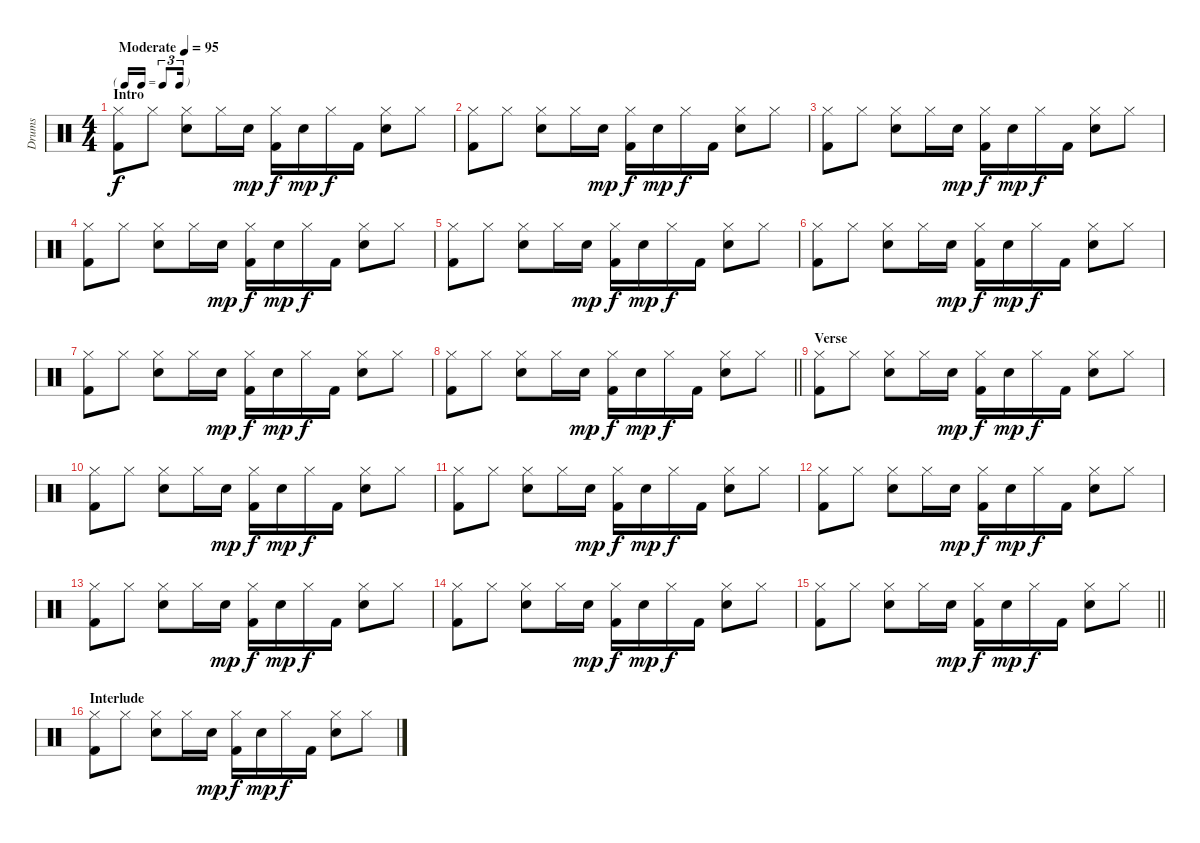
\track ("Drums" "Drums") {instrument percussion}
\staff {score}
\articulation defaults
\ts (4 4)
\tf triplet16th
\section ("" "Intro")
\tempo (95 "Moderate")
\clef neutral
\ks c
("Hi-Hat (closed)" "Kick (hit) 2").8{dy f} "Hi-Hat (closed)".8 ("Hi-Hat (closed)" "Snare (hit) 2").8 "Hi-Hat (closed)".16 "Snare (hit) 2".16{dy mp} ("Hi-Hat (closed)" "Kick (hit) 2").16{dy f} "Snare (hit) 2".16{dy mp} "Hi-Hat (closed)".16{dy f} "Kick (hit) 2".16 ("Hi-Hat (closed)" "Snare (hit) 2").8 "Hi-Hat (closed)".8 |
("Hi-Hat (closed)" "Kick (hit) 2").8 "Hi-Hat (closed)".8 ("Hi-Hat (closed)" "Snare (hit) 2").8 "Hi-Hat (closed)".16 "Snare (hit) 2".16{dy mp} ("Hi-Hat (closed)" "Kick (hit) 2").16{dy f} "Snare (hit) 2".16{dy mp} "Hi-Hat (closed)".16{dy f} "Kick (hit) 2".16 ("Hi-Hat (closed)" "Snare (hit) 2").8 "Hi-Hat (closed)".8 |
("Hi-Hat (closed)" "Kick (hit) 2").8 "Hi-Hat (closed)".8 ("Hi-Hat (closed)" "Snare (hit) 2").8 "Hi-Hat (closed)".16 "Snare (hit) 2".16{dy mp} ("Hi-Hat (closed)" "Kick (hit) 2").16{dy f} "Snare (hit) 2".16{dy mp} "Hi-Hat (closed)".16{dy f} "Kick (hit) 2".16 ("Hi-Hat (closed)" "Snare (hit) 2").8 "Hi-Hat (closed)".8 |
("Hi-Hat (closed)" "Kick (hit) 2").8 "Hi-Hat (closed)".8 ("Hi-Hat (closed)" "Snare (hit) 2").8 "Hi-Hat (closed)".16 "Snare (hit) 2".16{dy mp} ("Hi-Hat (closed)" "Kick (hit) 2").16{dy f} "Snare (hit) 2".16{dy mp} "Hi-Hat (closed)".16{dy f} "Kick (hit) 2".16 ("Hi-Hat (closed)" "Snare (hit) 2").8 "Hi-Hat (closed)".8 |
("Hi-Hat (closed)" "Kick (hit) 2").8 "Hi-Hat (closed)".8 ("Hi-Hat (closed)" "Snare (hit) 2").8 "Hi-Hat (closed)".16 "Snare (hit) 2".16{dy mp} ("Hi-Hat (closed)" "Kick (hit) 2").16{dy f} "Snare (hit) 2".16{dy mp} "Hi-Hat (closed)".16{dy f} "Kick (hit) 2".16 ("Hi-Hat (closed)" "Snare (hit) 2").8 "Hi-Hat (closed)".8 |
("Hi-Hat (closed)" "Kick (hit) 2").8 "Hi-Hat (closed)".8 ("Hi-Hat (closed)" "Snare (hit) 2").8 "Hi-Hat (closed)".16 "Snare (hit) 2".16{dy mp} ("Hi-Hat (closed)" "Kick (hit) 2").16{dy f} "Snare (hit) 2".16{dy mp} "Hi-Hat (closed)".16{dy f} "Kick (hit) 2".16 ("Hi-Hat (closed)" "Snare (hit) 2").8 "Hi-Hat (closed)".8 |
("Hi-Hat (closed)" "Kick (hit) 2").8 "Hi-Hat (closed)".8 ("Hi-Hat (closed)" "Snare (hit) 2").8 "Hi-Hat (closed)".16 "Snare (hit) 2".16{dy mp} ("Hi-Hat (closed)" "Kick (hit) 2").16{dy f} "Snare (hit) 2".16{dy mp} "Hi-Hat (closed)".16{dy f} "Kick (hit) 2".16 ("Hi-Hat (closed)" "Snare (hit) 2").8 "Hi-Hat (closed)".8 |
\barLineRight lightlight
("Hi-Hat (closed)" "Kick (hit) 2").8 "Hi-Hat (closed)".8 ("Hi-Hat (closed)" "Snare (hit) 2").8 "Hi-Hat (closed)".16 "Snare (hit) 2".16{dy mp} ("Hi-Hat (closed)" "Kick (hit) 2").16{dy f} "Snare (hit) 2".16{dy mp} "Hi-Hat (closed)".16{dy f} "Kick (hit) 2".16 ("Hi-Hat (closed)" "Snare (hit) 2").8 "Hi-Hat (closed)".8 |
\section ("" "Verse")
("Hi-Hat (closed)" "Kick (hit) 2").8 "Hi-Hat (closed)".8 ("Hi-Hat (closed)" "Snare (hit) 2").8 "Hi-Hat (closed)".16 "Snare (hit) 2".16{dy mp} ("Hi-Hat (closed)" "Kick (hit) 2").16{dy f} "Snare (hit) 2".16{dy mp} "Hi-Hat (closed)".16{dy f} "Kick (hit) 2".16 ("Hi-Hat (closed)" "Snare (hit) 2").8 "Hi-Hat (closed)".8 |
("Hi-Hat (closed)" "Kick (hit) 2").8 "Hi-Hat (closed)".8 ("Hi-Hat (closed)" "Snare (hit) 2").8 "Hi-Hat (closed)".16 "Snare (hit) 2".16{dy mp} ("Hi-Hat (closed)" "Kick (hit) 2").16{dy f} "Snare (hit) 2".16{dy mp} "Hi-Hat (closed)".16{dy f} "Kick (hit) 2".16 ("Hi-Hat (closed)" "Snare (hit) 2").8 "Hi-Hat (closed)".8 |
("Hi-Hat (closed)" "Kick (hit) 2").8 "Hi-Hat (closed)".8 ("Hi-Hat (closed)" "Snare (hit) 2").8 "Hi-Hat (closed)".16 "Snare (hit) 2".16{dy mp} ("Hi-Hat (closed)" "Kick (hit) 2").16{dy f} "Snare (hit) 2".16{dy mp} "Hi-Hat (closed)".16{dy f} "Kick (hit) 2".16 ("Hi-Hat (closed)" "Snare (hit) 2").8 "Hi-Hat (closed)".8 |
("Hi-Hat (closed)" "Kick (hit) 2").8 "Hi-Hat (closed)".8 ("Hi-Hat (closed)" "Snare (hit) 2").8 "Hi-Hat (closed)".16 "Snare (hit) 2".16{dy mp} ("Hi-Hat (closed)" "Kick (hit) 2").16{dy f} "Snare (hit) 2".16{dy mp} "Hi-Hat (closed)".16{dy f} "Kick (hit) 2".16 ("Hi-Hat (closed)" "Snare (hit) 2").8 "Hi-Hat (closed)".8 |
("Hi-Hat (closed)" "Kick (hit) 2").8 "Hi-Hat (closed)".8 ("Hi-Hat (closed)" "Snare (hit) 2").8 "Hi-Hat (closed)".16 "Snare (hit) 2".16{dy mp} ("Hi-Hat (closed)" "Kick (hit) 2").16{dy f} "Snare (hit) 2".16{dy mp} "Hi-Hat (closed)".16{dy f} "Kick (hit) 2".16 ("Hi-Hat (closed)" "Snare (hit) 2").8 "Hi-Hat (closed)".8 |
("Hi-Hat (closed)" "Kick (hit) 2").8 "Hi-Hat (closed)".8 ("Hi-Hat (closed)" "Snare (hit) 2").8 "Hi-Hat (closed)".16 "Snare (hit) 2".16{dy mp} ("Hi-Hat (closed)" "Kick (hit) 2").16{dy f} "Snare (hit) 2".16{dy mp} "Hi-Hat (closed)".16{dy f} "Kick (hit) 2".16 ("Hi-Hat (closed)" "Snare (hit) 2").8 "Hi-Hat (closed)".8 |
\barLineRight lightlight
("Hi-Hat (closed)" "Kick (hit) 2").8 "Hi-Hat (closed)".8 ("Hi-Hat (closed)" "Snare (hit) 2").8 "Hi-Hat (closed)".16 "Snare (hit) 2".16{dy mp} ("Hi-Hat (closed)" "Kick (hit) 2").16{dy f} "Snare (hit) 2".16{dy mp} "Hi-Hat (closed)".16{dy f} "Kick (hit) 2".16 ("Hi-Hat (closed)" "Snare (hit) 2").8 "Hi-Hat (closed)".8 |
\section ("" "Interlude")
("Hi-Hat (closed)" "Kick (hit) 2").8 "Hi-Hat (closed)".8 ("Hi-Hat (closed)" "Snare (hit) 2").8 "Hi-Hat (closed)".16 "Snare (hit) 2".16{dy mp} ("Hi-Hat (closed)" "Kick (hit) 2").16{dy f} "Snare (hit) 2".16{dy mp} "Hi-Hat (closed)".16{dy f} "Kick (hit) 2".16 ("Hi-Hat (closed)" "Snare (hit) 2").8 "Hi-Hat (closed)".8
